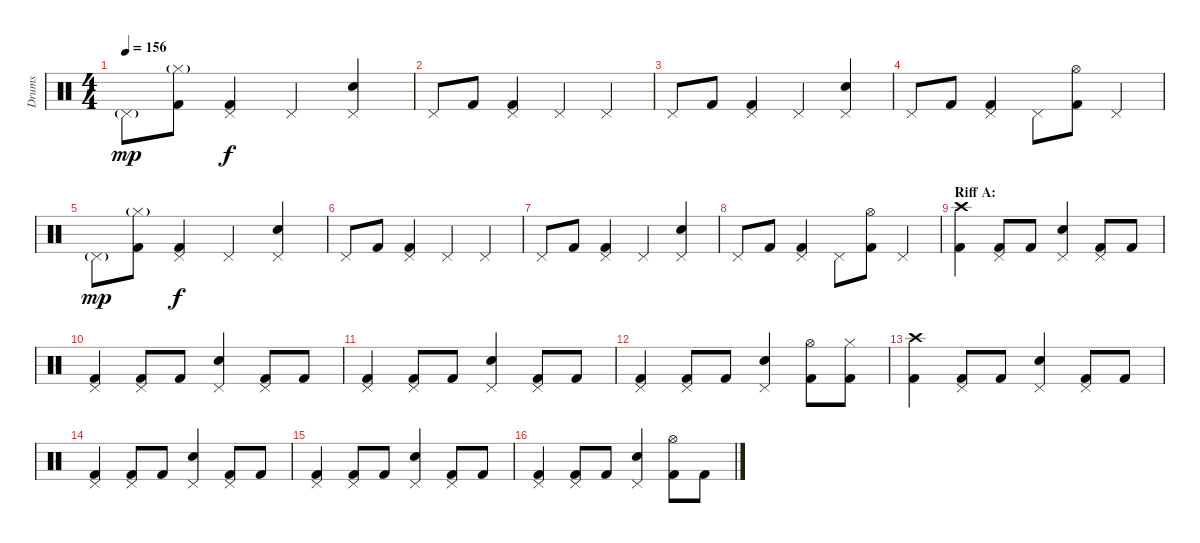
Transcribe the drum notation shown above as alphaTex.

\track ("Drums" "Drums") {instrument percussion}
\staff {score}
\articulation defaults
\ts (4 4)
\tempo 156
\clef neutral
\ks c "Pedal Hi-Hat (hit)"{g}.8{dy mp}
("Hi-Hat (closed)"{g} "Kick (hit) 2").8 ("Pedal Hi-Hat (hit)" "Kick (hit) 2").4{dy f} "Pedal Hi-Hat (hit)".4 ("Pedal Hi-Hat (hit)" "Electric Snare (hit)").4 |
"Pedal Hi-Hat (hit)".8 "Kick (hit) 2".8 ("Pedal Hi-Hat (hit)" "Kick (hit) 2").4 "Pedal Hi-Hat (hit)".4 "Pedal Hi-Hat (hit)".4 |
"Pedal Hi-Hat (hit)".8 "Kick (hit) 2".8 ("Pedal Hi-Hat (hit)" "Kick (hit) 2").4 "Pedal Hi-Hat (hit)".4 ("Pedal Hi-Hat (hit)" "Electric Snare (hit)").4 |
"Pedal Hi-Hat (hit)".8 "Kick (hit) 2".8 ("Pedal Hi-Hat (hit)" "Kick (hit) 2").4 "Pedal Hi-Hat (hit)".8 ("Hi-Hat (open)" "Kick (hit) 2").8 "Pedal Hi-Hat (hit)".4 |
"Pedal Hi-Hat (hit)"{g}.8{dy mp} ("Hi-Hat (closed)"{g} "Kick (hit) 2").8 ("Pedal Hi-Hat (hit)" "Kick (hit) 2").4{dy f} "Pedal Hi-Hat (hit)".4 ("Pedal Hi-Hat (hit)" "Electric Snare (hit)").4 |
"Pedal Hi-Hat (hit)".8 "Kick (hit) 2".8 ("Pedal Hi-Hat (hit)" "Kick (hit) 2").4 "Pedal Hi-Hat (hit)".4 "Pedal Hi-Hat (hit)".4 |
"Pedal Hi-Hat (hit)".8 "Kick (hit) 2".8 ("Pedal Hi-Hat (hit)" "Kick (hit) 2").4 "Pedal Hi-Hat (hit)".4 ("Pedal Hi-Hat (hit)" "Electric Snare (hit)").4 |
"Pedal Hi-Hat (hit)".8 "Kick (hit) 2".8 ("Pedal Hi-Hat (hit)" "Kick (hit) 2").4 "Pedal Hi-Hat (hit)".8 ("Hi-Hat (open)" "Kick (hit) 2").8 "Pedal Hi-Hat (hit)".4 |
\section ("" "Riff A:")
("Crash high (hit)" "Kick (hit) 2").4 ("Pedal Hi-Hat (hit)" "Kick (hit) 2").8 "Kick (hit) 2".8 ("Pedal Hi-Hat (hit)" "Electric Snare (hit)").4 ("Pedal Hi-Hat (hit)" "Kick (hit) 2").8 "Kick (hit) 2".8 |
("Pedal Hi-Hat (hit)" "Kick (hit) 2").4 ("Pedal Hi-Hat (hit)" "Kick (hit) 2").8 "Kick (hit) 2".8 ("Pedal Hi-Hat (hit)" "Electric Snare (hit)").4 ("Pedal Hi-Hat (hit)" "Kick (hit) 2").8 "Kick (hit) 2".8 |
("Pedal Hi-Hat (hit)" "Kick (hit) 2").4 ("Pedal Hi-Hat (hit)" "Kick (hit) 2").8 "Kick (hit) 2".8 ("Pedal Hi-Hat (hit)" "Electric Snare (hit)").4 ("Pedal Hi-Hat (hit)" "Kick (hit) 2").8 "Kick (hit) 2".8 |
("Pedal Hi-Hat (hit)" "Kick (hit) 2").4 ("Pedal Hi-Hat (hit)" "Kick (hit) 2").8 "Kick (hit) 2".8 ("Pedal Hi-Hat (hit)" "Electric Snare (hit)").4 ("Hi-Hat (open)" "Kick (hit) 2").8 ("Hi-Hat (closed)" "Kick (hit) 2").8 |
("Crash high (hit)" "Kick (hit) 2").4 ("Pedal Hi-Hat (hit)" "Kick (hit) 2").8 "Kick (hit) 2".8 ("Pedal Hi-Hat (hit)" "Electric Snare (hit)").4 ("Pedal Hi-Hat (hit)" "Kick (hit) 2").8 "Kick (hit) 2".8 |
("Pedal Hi-Hat (hit)" "Kick (hit) 2").4 ("Pedal Hi-Hat (hit)" "Kick (hit) 2").8 "Kick (hit) 2".8 ("Pedal Hi-Hat (hit)" "Electric Snare (hit)").4 ("Pedal Hi-Hat (hit)" "Kick (hit) 2").8 "Kick (hit) 2".8 |
("Pedal Hi-Hat (hit)" "Kick (hit) 2").4 ("Pedal Hi-Hat (hit)" "Kick (hit) 2").8 "Kick (hit) 2".8 ("Pedal Hi-Hat (hit)" "Electric Snare (hit)").4 ("Pedal Hi-Hat (hit)" "Kick (hit) 2").8 "Kick (hit) 2".8 |
("Pedal Hi-Hat (hit)" "Kick (hit) 2").4 ("Pedal Hi-Hat (hit)" "Kick (hit) 2").8 "Kick (hit) 2".8 ("Pedal Hi-Hat (hit)" "Electric Snare (hit)").4 ("Hi-Hat (open)" "Kick (hit) 2").8 "Kick (hit) 2".8
